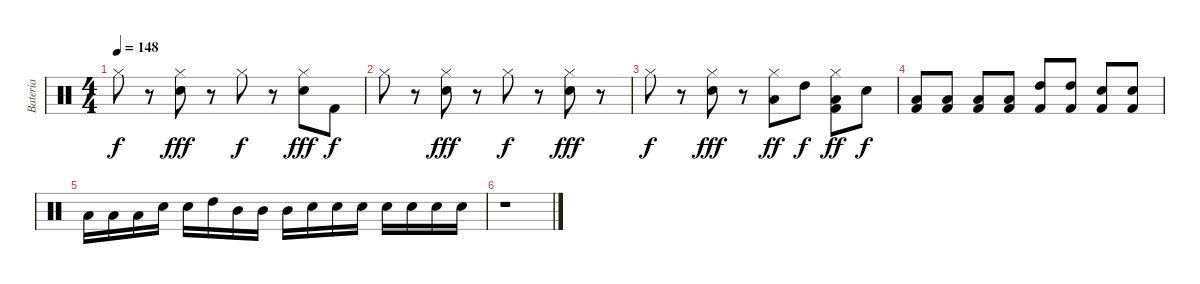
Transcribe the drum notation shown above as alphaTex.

\track ("Bateria" "Bateria") {instrument percussion}
\staff {score}
\articulation defaults
\ts (4 4)
\tempo 148
\clef neutral
\ks c "Hi-Hat (closed)".8{dy f}
r.8 ("Hi-Hat (closed)" "Electric Snare (hit)").8{dy fff} r.8 "Hi-Hat (closed)".8{dy f} r.8 ("Hi-Hat (closed)" "Electric Snare (hit)").8{dy fff} "Kick (hit) 2".8{dy f} |
"Hi-Hat (closed)".8 r.8 ("Hi-Hat (closed)" "Electric Snare (hit)").8{dy fff} r.8 "Hi-Hat (closed)".8{dy f} r.8 ("Hi-Hat (closed)" "Electric Snare (hit)").8{dy fff} r.8 |
"Hi-Hat (closed)".8{dy f} r.8 ("Hi-Hat (closed)" "Electric Snare (hit)").8{dy fff} r.8 ("Hi-Hat (closed)" "Low Tom (hit)").8{dy ff} "High Tom (hit)".8{dy f} ("Hi-Hat (closed)" "Low Tom (hit)" "Kick (hit) 2").8{dy ff} "Snare (hit) 2".8{dy f} |
("Low Tom (hit)" "Kick (hit) 2").8 ("Low Tom (hit)" "Kick (hit) 2").8 ("Low Tom (hit)" "Kick (hit) 2").8 ("Low Tom (hit)" "Kick (hit) 2").8 ("High Tom (hit)" "Kick (hit) 2").8 ("High Tom (hit)" "Kick (hit) 2").8 ("Snare (hit) 2" "Kick (hit) 2").8 ("Snare (hit) 2" "Kick (hit) 2").8 |
"Low Tom (hit)".16 "Low Tom (hit)".16 "Low Tom (hit)".16 "Snare (hit) 2".16 "Snare (hit) 2".16 "High Tom (hit)".16 "Mid Tom (hit)".16 "Mid Tom (hit)".16 "Mid Tom (hit)".16 "Snare (hit) 2".16 "Snare (hit) 2".16 "Electric Snare (hit)".16 "Electric Snare (hit)".16 "Electric Snare (hit)".16 "Electric Snare (hit)".16 "Electric Snare (hit)".16 |
r.1
